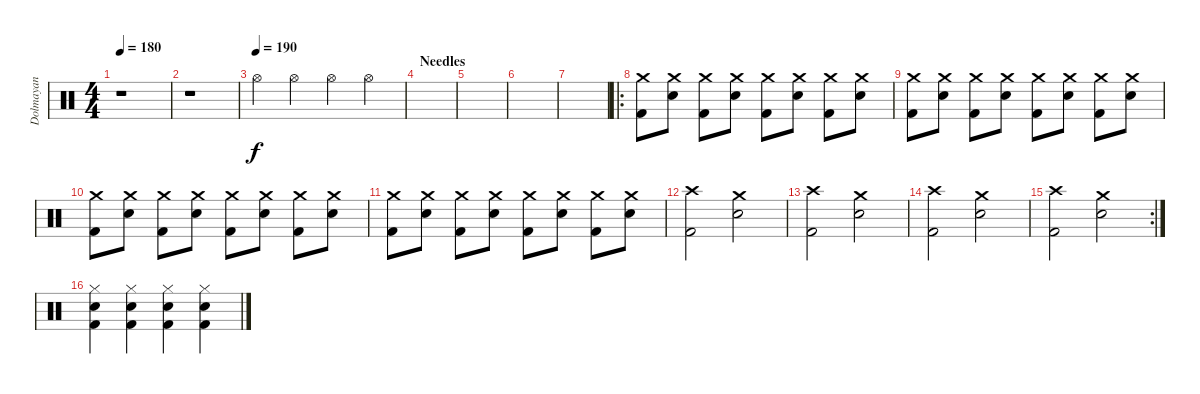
\track ("Dolmayan" "Dolmayan") {instrument percussion}
\staff {score}
\articulation defaults
\ts (4 4)
\tempo 180
\clef neutral
\ks c
r.1{dy f} |
r.1 |
\tempo (190)
"Hi-Hat (open)".4 "Hi-Hat (open)".4 "Hi-Hat (open)".4 "Hi-Hat (open)".4 |
\section ("" "Needles")
|
|
|
|
\ro
("Kick (hit) 2" "Crash medium (hit)").8 ("Electric Snare (hit)" "Crash medium (hit)").8 ("Kick (hit) 2" "Crash medium (hit)").8 ("Electric Snare (hit)" "Crash medium (hit)").8 ("Kick (hit) 2" "Crash medium (hit)").8 ("Electric Snare (hit)" "Crash medium (hit)").8 ("Kick (hit) 2" "Crash medium (hit)").8 ("Electric Snare (hit)" "Crash medium (hit)").8 |
("Kick (hit) 2" "Crash medium (hit)").8 ("Electric Snare (hit)" "Crash medium (hit)").8 ("Kick (hit) 2" "Crash medium (hit)").8 ("Electric Snare (hit)" "Crash medium (hit)").8 ("Kick (hit) 2" "Crash medium (hit)").8 ("Electric Snare (hit)" "Crash medium (hit)").8 ("Kick (hit) 2" "Crash medium (hit)").8 ("Electric Snare (hit)" "Crash medium (hit)").8 |
("Kick (hit) 2" "Crash medium (hit)").8 ("Electric Snare (hit)" "Crash medium (hit)").8 ("Kick (hit) 2" "Crash medium (hit)").8 ("Electric Snare (hit)" "Crash medium (hit)").8 ("Kick (hit) 2" "Crash medium (hit)").8 ("Electric Snare (hit)" "Crash medium (hit)").8 ("Kick (hit) 2" "Crash medium (hit)").8 ("Electric Snare (hit)" "Crash medium (hit)").8 |
("Kick (hit) 2" "Crash medium (hit)").8 ("Electric Snare (hit)" "Crash medium (hit)").8 ("Kick (hit) 2" "Crash medium (hit)").8 ("Electric Snare (hit)" "Crash medium (hit)").8 ("Kick (hit) 2" "Crash medium (hit)").8 ("Electric Snare (hit)" "Crash medium (hit)").8 ("Kick (hit) 2" "Crash medium (hit)").8 ("Electric Snare (hit)" "Crash medium (hit)").8 |
("Crash high (hit)" "Kick (hit) 2").2 ("Crash medium (hit)" "Electric Snare (hit)").2 |
("Crash high (hit)" "Kick (hit) 2").2 ("Crash medium (hit)" "Electric Snare (hit)").2 |
("Crash high (hit)" "Kick (hit) 2").2 ("Crash medium (hit)" "Electric Snare (hit)").2 |
\rc 2
("Crash high (hit)" "Kick (hit) 2").2 ("Crash medium (hit)" "Electric Snare (hit)").2 |
("Hi-Hat (closed)" "Electric Snare (hit)" "Kick (hit) 2").4 ("Hi-Hat (closed)" "Electric Snare (hit)" "Kick (hit) 2").4 ("Hi-Hat (closed)" "Electric Snare (hit)" "Kick (hit) 2").4 ("Hi-Hat (closed)" "Electric Snare (hit)" "Kick (hit) 2").4
